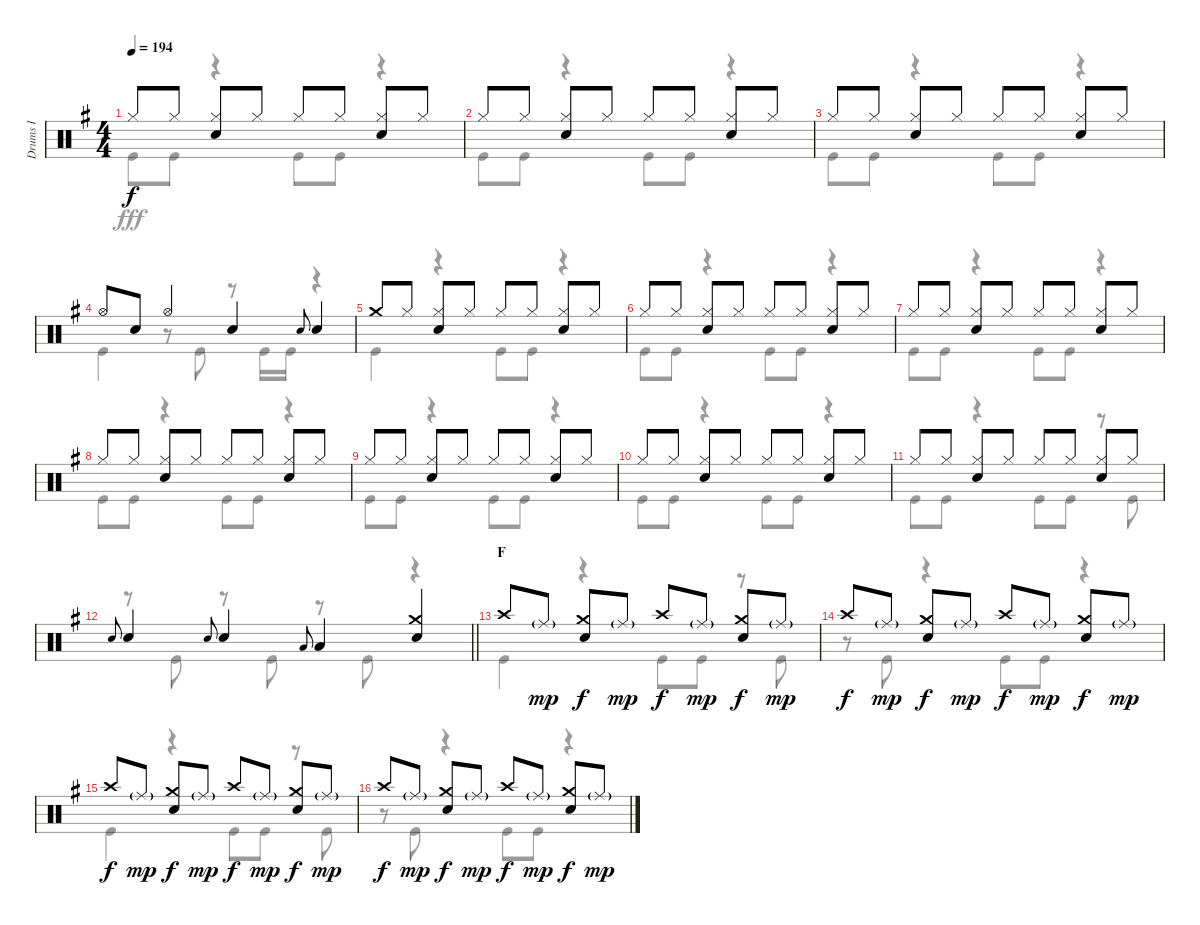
\track ("Drums I" "Drums I") {instrument percussion}
\staff {score}
\articulation defaults
\voice
\ts (4 4)
\tempo 194
\clef neutral
\ks g "Hi-Hat (closed)".8{dy f} "Hi-Hat (closed)".8
("Hi-Hat (closed)" "Snare (hit) 2").8 "Hi-Hat (closed)".8 "Hi-Hat (closed)".8 "Hi-Hat (closed)".8 ("Hi-Hat (closed)" "Snare (hit) 2").8 "Hi-Hat (closed)".8 |
"Hi-Hat (closed)".8 "Hi-Hat (closed)".8 ("Hi-Hat (closed)" "Snare (hit) 2").8 "Hi-Hat (closed)".8 "Hi-Hat (closed)".8 "Hi-Hat (closed)".8 ("Hi-Hat (closed)" "Snare (hit) 2").8 "Hi-Hat (closed)".8 |
"Hi-Hat (closed)".8 "Hi-Hat (closed)".8 ("Hi-Hat (closed)" "Snare (hit) 2").8 "Hi-Hat (closed)".8 "Hi-Hat (closed)".8 "Hi-Hat (closed)".8 ("Hi-Hat (closed)" "Snare (hit) 2").8 "Hi-Hat (closed)".8 |
"Hi-Hat (open)".8 "Snare (hit) 2".8 "Hi-Hat (open)".4 "Snare (hit) 2".4 "Snare (hit) 2".8{gr onbeat} "Snare (hit) 2".4 |
"Crash medium (hit)".8 "Hi-Hat (closed)".8 ("Hi-Hat (closed)" "Snare (hit) 2").8 "Hi-Hat (closed)".8 "Hi-Hat (closed)".8 "Hi-Hat (closed)".8 ("Hi-Hat (closed)" "Snare (hit) 2").8 "Hi-Hat (closed)".8 |
"Hi-Hat (closed)".8 "Hi-Hat (closed)".8 ("Hi-Hat (closed)" "Snare (hit) 2").8 "Hi-Hat (closed)".8 "Hi-Hat (closed)".8 "Hi-Hat (closed)".8 ("Hi-Hat (closed)" "Snare (hit) 2").8 "Hi-Hat (closed)".8 |
"Hi-Hat (closed)".8 "Hi-Hat (closed)".8 ("Hi-Hat (closed)" "Snare (hit) 2").8 "Hi-Hat (closed)".8 "Hi-Hat (closed)".8 "Hi-Hat (closed)".8 ("Hi-Hat (closed)" "Snare (hit) 2").8 "Hi-Hat (closed)".8 |
"Hi-Hat (closed)".8 "Hi-Hat (closed)".8 ("Hi-Hat (closed)" "Snare (hit) 2").8 "Hi-Hat (closed)".8 "Hi-Hat (closed)".8 "Hi-Hat (closed)".8 ("Hi-Hat (closed)" "Snare (hit) 2").8 "Hi-Hat (closed)".8 |
"Hi-Hat (closed)".8 "Hi-Hat (closed)".8 ("Hi-Hat (closed)" "Snare (hit) 2").8 "Hi-Hat (closed)".8 "Hi-Hat (closed)".8 "Hi-Hat (closed)".8 ("Hi-Hat (closed)" "Snare (hit) 2").8 "Hi-Hat (closed)".8 |
"Hi-Hat (closed)".8 "Hi-Hat (closed)".8 ("Hi-Hat (closed)" "Snare (hit) 2").8 "Hi-Hat (closed)".8 "Hi-Hat (closed)".8 "Hi-Hat (closed)".8 ("Hi-Hat (closed)" "Snare (hit) 2").8 "Hi-Hat (closed)".8 |
"Hi-Hat (closed)".8 "Hi-Hat (closed)".8 ("Hi-Hat (closed)" "Snare (hit) 2").8 "Hi-Hat (closed)".8 "Hi-Hat (closed)".8 "Hi-Hat (closed)".8 ("Hi-Hat (closed)" "Snare (hit) 2").8 "Hi-Hat (closed)".8 |
\barLineRight lightlight "Snare (hit) 2".8{gr onbeat} "Snare (hit) 2".4 "Snare (hit) 2".8{gr onbeat} "Snare (hit) 2".4 "Low Tom (hit)".8{gr onbeat} "Low Tom (hit)".4
("Crash medium (hit)" "Snare (hit) 2").4 |
\section ("" "F")
"Crash high (hit)".8 "Ride (middle)"{g}.8{dy mp} ("Crash medium (hit)" "Snare (hit) 2").8{dy f} "Ride (middle)"{g}.8{dy mp} "Crash high (hit)".8{dy f} "Ride (middle)"{g}.8{dy mp} ("Crash medium (hit)" "Snare (hit) 2").8{dy f} "Ride (middle)"{g}.8{dy mp} |
"Crash high (hit)".8{dy f} "Ride (middle)"{g}.8{dy mp} ("Crash medium (hit)" "Snare (hit) 2").8{dy f} "Ride (middle)"{g}.8{dy mp} "Crash high (hit)".8{dy f} "Ride (middle)"{g}.8{dy mp} ("Crash medium (hit)" "Snare (hit) 2").8{dy f} "Ride (middle)"{g}.8{dy mp} |
"Crash high (hit)".8{dy f} "Ride (middle)"{g}.8{dy mp} ("Crash medium (hit)" "Snare (hit) 2").8{dy f} "Ride (middle)"{g}.8{dy mp} "Crash high (hit)".8{dy f} "Ride (middle)"{g}.8{dy mp} ("Crash medium (hit)" "Snare (hit) 2").8{dy f} "Ride (middle)"{g}.8{dy mp} |
"Crash high (hit)".8{dy f} "Ride (middle)"{g}.8{dy mp} ("Crash medium (hit)" "Snare (hit) 2").8{dy f} "Ride (middle)"{g}.8{dy mp} "Crash high (hit)".8{dy f} "Ride (middle)"{g}.8{dy mp} ("Crash medium (hit)" "Snare (hit) 2").8{dy f} "Ride (middle)"{g}.8{dy mp}
\voice
\clef neutral
\ottava regular
\simile none
\ks g "Kick (hit)".8{dy fff} "Kick (hit)".8
r.4 "Kick (hit)".8 "Kick (hit)".8 r.4 |
"Kick (hit)".8 "Kick (hit)".8 r.4 "Kick (hit)".8 "Kick (hit)".8 r.4 |
"Kick (hit)".8 "Kick (hit)".8 r.4 "Kick (hit)".8 "Kick (hit)".8 r.4 |
"Kick (hit)".4 r.8 "Kick (hit)".8 r.8 "Kick (hit)".16 "Kick (hit)".16 r.4 |
"Kick (hit)".4 r.4 "Kick (hit)".8 "Kick (hit)".8 r.4 |
"Kick (hit)".8 "Kick (hit)".8 r.4 "Kick (hit)".8 "Kick (hit)".8 r.4 |
"Kick (hit)".8 "Kick (hit)".8 r.4 "Kick (hit)".8 "Kick (hit)".8 r.4 |
"Kick (hit)".8 "Kick (hit)".8 r.4 "Kick (hit)".8 "Kick (hit)".8 r.4 |
"Kick (hit)".8 "Kick (hit)".8 r.4 "Kick (hit)".8 "Kick (hit)".8 r.4 |
"Kick (hit)".8 "Kick (hit)".8 r.4 "Kick (hit)".8 "Kick (hit)".8 r.4 |
"Kick (hit)".8 "Kick (hit)".8 r.4 "Kick (hit)".8 "Kick (hit)".8 r.8 "Kick (hit)".8 |
\barLineRight lightlight
r.8 "Kick (hit)".8 r.8 "Kick (hit)".8 r.8 "Kick (hit)".8 r.4 |
"Kick (hit)".4 r.4 "Kick (hit)".8 "Kick (hit)".8 r.8 "Kick (hit)".8 |
r.8 "Kick (hit)".8 r.4 "Kick (hit)".8 "Kick (hit)".8 r.4 |
"Kick (hit)".4 r.4 "Kick (hit)".8 "Kick (hit)".8 r.8 "Kick (hit)".8 |
r.8 "Kick (hit)".8 r.4 "Kick (hit)".8 "Kick (hit)".8 r.4
